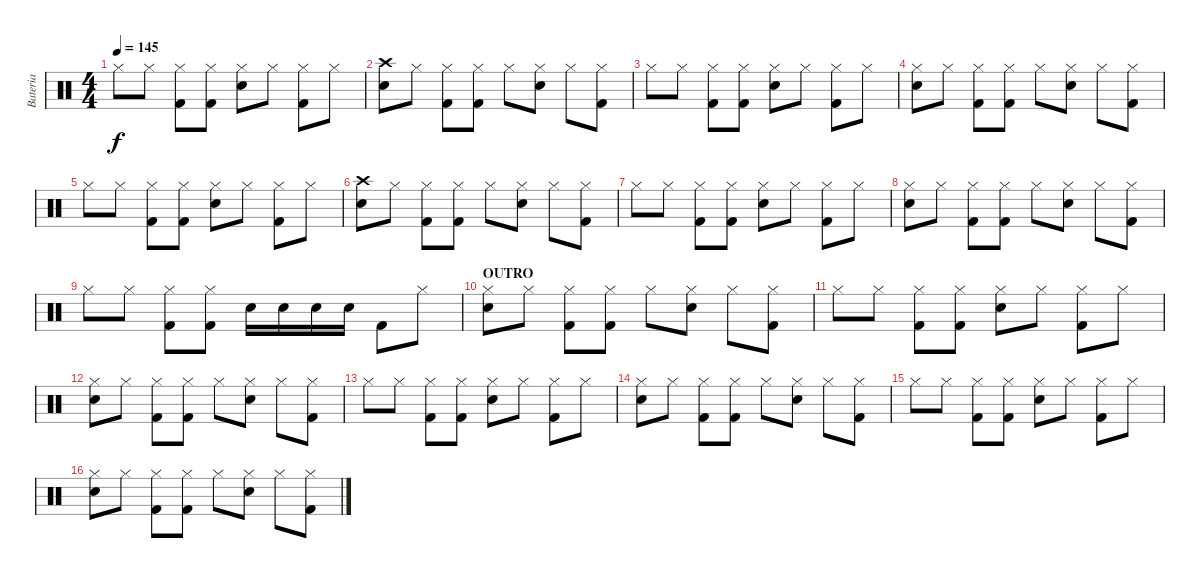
\track ("Bateria" "Bateria") {instrument percussion}
\staff {score}
\articulation defaults
\ts (4 4)
\tempo 145
\clef neutral
\ks c "Hi-Hat (closed)".8{dy f} "Hi-Hat (closed)".8
("Hi-Hat (closed)" "Kick (hit) 2").8 ("Hi-Hat (closed)" "Kick (hit) 2").8 ("Hi-Hat (closed)" "Snare (hit) 2").8 "Hi-Hat (closed)".8 ("Hi-Hat (closed)" "Kick (hit) 2").8 "Hi-Hat (closed)".8 |
("Crash high (hit)" "Snare (hit) 2").8 "Hi-Hat (closed)".8 ("Hi-Hat (closed)" "Kick (hit) 2").8 ("Hi-Hat (closed)" "Kick (hit) 2").8 "Hi-Hat (closed)".8 ("Hi-Hat (closed)" "Snare (hit) 2").8 "Hi-Hat (closed)".8 ("Hi-Hat (closed)" "Kick (hit) 2").8 |
"Hi-Hat (closed)".8 "Hi-Hat (closed)".8 ("Hi-Hat (closed)" "Kick (hit) 2").8 ("Hi-Hat (closed)" "Kick (hit) 2").8 ("Hi-Hat (closed)" "Snare (hit) 2").8 "Hi-Hat (closed)".8 ("Hi-Hat (closed)" "Kick (hit) 2").8 "Hi-Hat (closed)".8 |
("Hi-Hat (closed)" "Snare (hit) 2").8 "Hi-Hat (closed)".8 ("Hi-Hat (closed)" "Kick (hit) 2").8 ("Hi-Hat (closed)" "Kick (hit) 2").8 "Hi-Hat (closed)".8 ("Hi-Hat (closed)" "Snare (hit) 2").8 "Hi-Hat (closed)".8 ("Hi-Hat (closed)" "Kick (hit) 2").8 |
"Hi-Hat (closed)".8 "Hi-Hat (closed)".8 ("Hi-Hat (closed)" "Kick (hit) 2").8 ("Hi-Hat (closed)" "Kick (hit) 2").8 ("Hi-Hat (closed)" "Snare (hit) 2").8 "Hi-Hat (closed)".8 ("Hi-Hat (closed)" "Kick (hit) 2").8 "Hi-Hat (closed)".8 |
("Crash high (hit)" "Snare (hit) 2").8 "Hi-Hat (closed)".8 ("Hi-Hat (closed)" "Kick (hit) 2").8 ("Hi-Hat (closed)" "Kick (hit) 2").8 "Hi-Hat (closed)".8 ("Hi-Hat (closed)" "Snare (hit) 2").8 "Hi-Hat (closed)".8 ("Hi-Hat (closed)" "Kick (hit) 2").8 |
"Hi-Hat (closed)".8 "Hi-Hat (closed)".8 ("Hi-Hat (closed)" "Kick (hit) 2").8 ("Hi-Hat (closed)" "Kick (hit) 2").8 ("Hi-Hat (closed)" "Snare (hit) 2").8 "Hi-Hat (closed)".8 ("Hi-Hat (closed)" "Kick (hit) 2").8 "Hi-Hat (closed)".8 |
("Hi-Hat (closed)" "Snare (hit) 2").8 "Hi-Hat (closed)".8 ("Hi-Hat (closed)" "Kick (hit) 2").8 ("Hi-Hat (closed)" "Kick (hit) 2").8 "Hi-Hat (closed)".8 ("Hi-Hat (closed)" "Snare (hit) 2").8 "Hi-Hat (closed)".8 ("Hi-Hat (closed)" "Kick (hit) 2").8 |
"Hi-Hat (closed)".8 "Hi-Hat (closed)".8 ("Hi-Hat (closed)" "Kick (hit) 2").8 ("Hi-Hat (closed)" "Kick (hit) 2").8 "Snare (hit) 2".16 "Snare (hit) 2".16 "Snare (hit) 2".16 "Snare (hit) 2".16 "Kick (hit) 2".8 "Hi-Hat (closed)".8 |
\section ("" "OUTRO")
("Hi-Hat (closed)" "Snare (hit) 2").8 "Hi-Hat (closed)".8 ("Hi-Hat (closed)" "Kick (hit) 2").8 ("Hi-Hat (closed)" "Kick (hit) 2").8 "Hi-Hat (closed)".8 ("Hi-Hat (closed)" "Snare (hit) 2").8 "Hi-Hat (closed)".8 ("Hi-Hat (closed)" "Kick (hit) 2").8 |
"Hi-Hat (closed)".8 "Hi-Hat (closed)".8 ("Hi-Hat (closed)" "Kick (hit) 2").8 ("Hi-Hat (closed)" "Kick (hit) 2").8 ("Hi-Hat (closed)" "Snare (hit) 2").8 "Hi-Hat (closed)".8 ("Hi-Hat (closed)" "Kick (hit) 2").8 "Hi-Hat (closed)".8 |
("Hi-Hat (closed)" "Snare (hit) 2").8 "Hi-Hat (closed)".8 ("Hi-Hat (closed)" "Kick (hit) 2").8 ("Hi-Hat (closed)" "Kick (hit) 2").8 "Hi-Hat (closed)".8 ("Hi-Hat (closed)" "Snare (hit) 2").8 "Hi-Hat (closed)".8 ("Hi-Hat (closed)" "Kick (hit) 2").8 |
"Hi-Hat (closed)".8 "Hi-Hat (closed)".8 ("Hi-Hat (closed)" "Kick (hit) 2").8 ("Hi-Hat (closed)" "Kick (hit) 2").8 ("Hi-Hat (closed)" "Snare (hit) 2").8 "Hi-Hat (closed)".8 ("Hi-Hat (closed)" "Kick (hit) 2").8 "Hi-Hat (closed)".8 |
("Hi-Hat (closed)" "Snare (hit) 2").8 "Hi-Hat (closed)".8 ("Hi-Hat (closed)" "Kick (hit) 2").8 ("Hi-Hat (closed)" "Kick (hit) 2").8 "Hi-Hat (closed)".8 ("Hi-Hat (closed)" "Snare (hit) 2").8 "Hi-Hat (closed)".8 ("Hi-Hat (closed)" "Kick (hit) 2").8 |
"Hi-Hat (closed)".8 "Hi-Hat (closed)".8 ("Hi-Hat (closed)" "Kick (hit) 2").8 ("Hi-Hat (closed)" "Kick (hit) 2").8 ("Hi-Hat (closed)" "Snare (hit) 2").8 "Hi-Hat (closed)".8 ("Hi-Hat (closed)" "Kick (hit) 2").8 "Hi-Hat (closed)".8 |
("Hi-Hat (closed)" "Snare (hit) 2").8 "Hi-Hat (closed)".8 ("Hi-Hat (closed)" "Kick (hit) 2").8 ("Hi-Hat (closed)" "Kick (hit) 2").8 "Hi-Hat (closed)".8 ("Hi-Hat (closed)" "Snare (hit) 2").8 "Hi-Hat (closed)".8 ("Hi-Hat (closed)" "Kick (hit) 2").8
